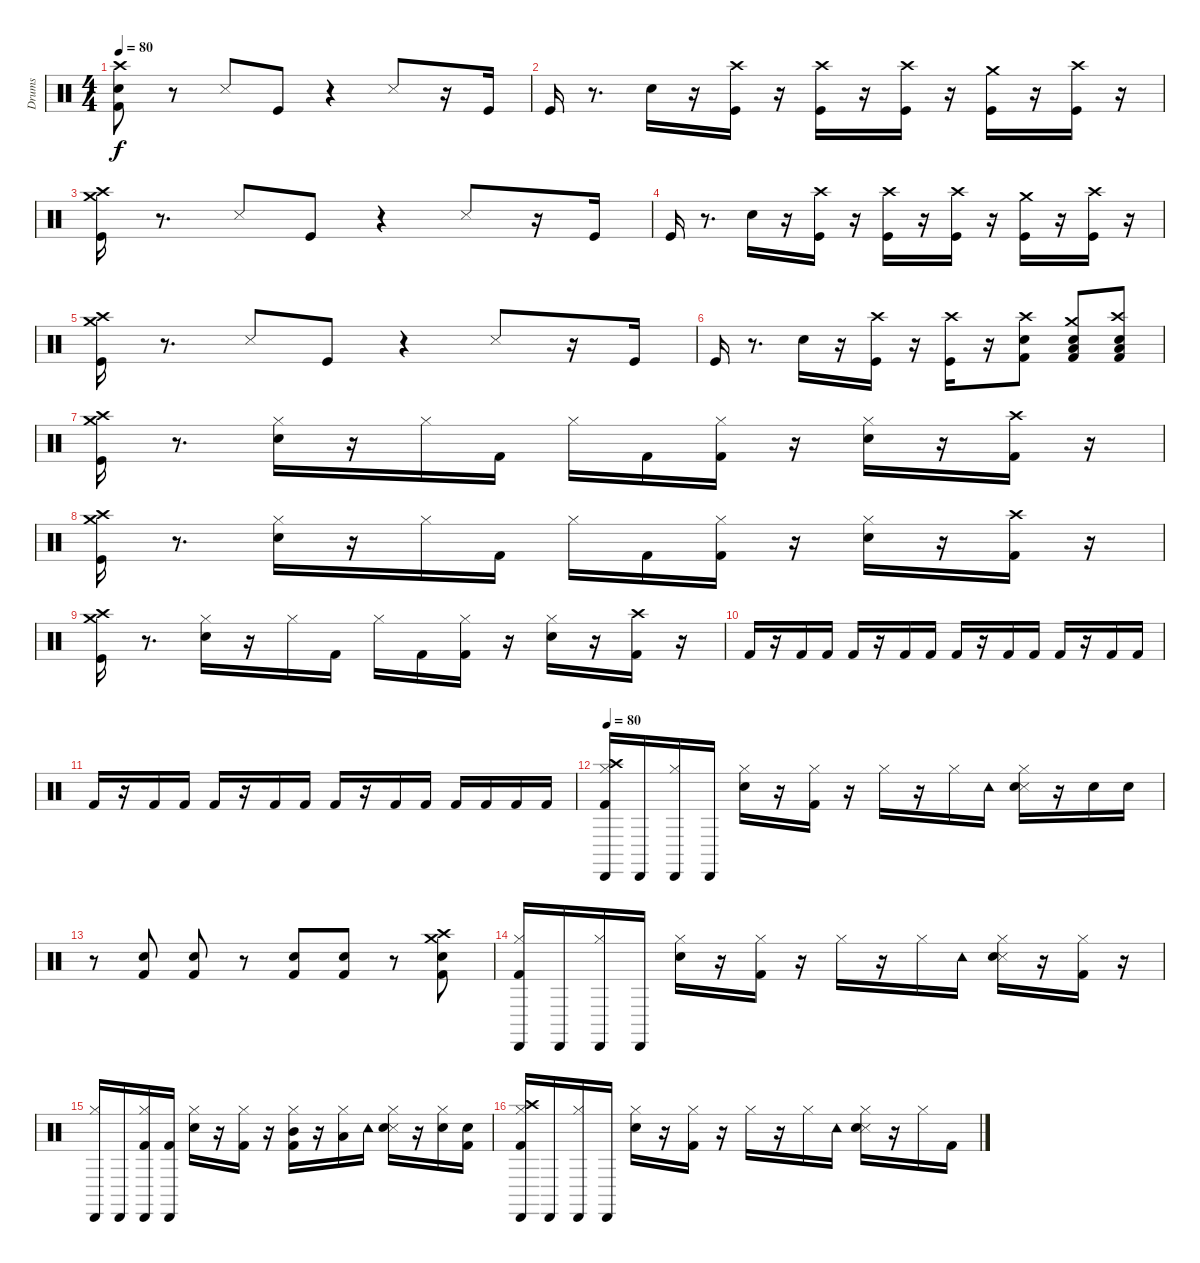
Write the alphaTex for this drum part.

\track ("Drums" "Drums") {instrument percussion}
\staff {score}
\articulation defaults
\ts (4 4)
\tempo 80
\clef neutral
\ks c
("Kick (hit) 2" "Snare (hit) 2" "Crash high (hit)").8{dy f} r.8 "Snare (side stick) 3".8 "Kick (hit)".8 r.4 "Snare (side stick) 3".8 r.16 "Kick (hit)".16 |
"Kick (hit)".16 r.8{d} "Electric Snare (hit)".16 r.16 ("Crash high (hit)" "Kick (hit)").16 r.16 ("Crash high (hit)" "Kick (hit)").16 r.16 ("Crash high (hit)" "Kick (hit)").16 r.16 ("Crash medium (hit)" "Kick (hit)").16 r.16 ("Crash high (hit)" "Kick (hit)").16 r.16 |
("Crash high (hit)" "Crash medium (hit)" "Kick (hit)").16 r.8{d} "Snare (side stick) 3".8 "Kick (hit)".8 r.4 "Snare (side stick) 3".8 r.16 "Kick (hit)".16 |
"Kick (hit)".16 r.8{d} "Electric Snare (hit)".16 r.16 ("Crash high (hit)" "Kick (hit)").16 r.16 ("Crash high (hit)" "Kick (hit)").16 r.16 ("Crash high (hit)" "Kick (hit)").16 r.16 ("Crash medium (hit)" "Kick (hit)").16 r.16 ("Crash high (hit)" "Kick (hit)").16 r.16 |
("Crash high (hit)" "Crash medium (hit)" "Kick (hit)").16 r.8{d} "Snare (side stick) 3".8 "Kick (hit)".8 r.4 "Snare (side stick) 3".8 r.16 "Kick (hit)".16 |
"Kick (hit)".16 r.8{d} "Electric Snare (hit)".16 r.16 ("Crash high (hit)" "Kick (hit)").16 r.16 ("Crash high (hit)" "Kick (hit)").16 r.16 ("Snare (hit) 2" "Crash high (hit)" "Kick (hit) 2").8 ("Snare (hit) 2" "Low Tom (hit)" "Crash medium (hit)" "Kick (hit) 2").8 ("Snare (hit) 2" "Low Tom (hit)" "Crash high (hit)" "Kick (hit) 2").8 |
("Crash high (hit)" "Crash medium (hit)" "Kick (hit)").16 r.8{d} ("Hi-Hat (closed)" "Snare (hit) 2").16 r.16 "Hi-Hat (closed)".16 "Kick (hit) 2".16 "Hi-Hat (closed)".16 "Kick (hit) 2".16 ("Hi-Hat (closed)" "Kick (hit) 2").16 r.16 ("Hi-Hat (closed)" "Snare (hit) 2").16 r.16 ("Crash high (hit)" "Kick (hit) 2").16 r.16 |
("Crash high (hit)" "Crash medium (hit)" "Kick (hit)").16 r.8{d} ("Hi-Hat (closed)" "Snare (hit) 2").16 r.16 "Hi-Hat (closed)".16 "Kick (hit) 2".16 "Hi-Hat (closed)".16 "Kick (hit) 2".16 ("Hi-Hat (closed)" "Kick (hit) 2").16 r.16 ("Hi-Hat (closed)" "Snare (hit) 2").16 r.16 ("Crash high (hit)" "Kick (hit) 2").16 r.16 |
("Crash high (hit)" "Crash medium (hit)" "Kick (hit)").16 r.8{d} ("Hi-Hat (closed)" "Snare (hit) 2").16 r.16 "Hi-Hat (closed)".16 "Kick (hit) 2".16 "Hi-Hat (closed)".16 "Kick (hit) 2".16 ("Hi-Hat (closed)" "Kick (hit) 2").16 r.16 ("Hi-Hat (closed)" "Snare (hit) 2").16 r.16 ("Crash high (hit)" "Kick (hit) 2").16 r.16 |
"Kick (hit) 2".16 r.16 "Kick (hit) 2".16 "Kick (hit) 2".16 "Kick (hit) 2".16 r.16 "Kick (hit) 2".16 "Kick (hit) 2".16 "Kick (hit) 2".16 r.16 "Kick (hit) 2".16 "Kick (hit) 2".16 "Kick (hit) 2".16 r.16 "Kick (hit) 2".16 "Kick (hit) 2".16 |
"Kick (hit) 2".16 r.16 "Kick (hit) 2".16 "Kick (hit) 2".16 "Kick (hit) 2".16 r.16 "Kick (hit) 2".16 "Kick (hit) 2".16 "Kick (hit) 2".16 r.16 "Kick (hit) 2".16 "Kick (hit) 2".16 "Kick (hit) 2".16 "Kick (hit) 2".16 "Kick (hit) 2".16 "Kick (hit) 2".16 |
\tempo 80
("Crash high (hit)" "Hi-Hat (closed)" "Kick (hit) 2" "Cabasa (hit)").16 "Cabasa (hit)".16 ("Cabasa (hit)" "Hi-Hat (closed)").16 "Cabasa (hit)".16 ("Hi-Hat (closed)" "Electric Snare (hit)").16 r.16 ("Kick (hit) 2" "Hi-Hat (closed)").16 r.16 "Hi-Hat (closed)".16 r.16 "Hi-Hat (closed)".16 "Tambourine (hit)".16 ("Metronome (hit)" "Snare (hit) 2" "Hi-Hat (closed)").16 r.16 "Electric Snare (hit)".16 "Electric Snare (hit)".16 |
r.8 ("Kick (hit) 2" "Electric Snare (hit)").8 ("Kick (hit) 2" "Electric Snare (hit)").8 r.8 ("Kick (hit) 2" "Electric Snare (hit)").8 ("Kick (hit) 2" "Electric Snare (hit)").8 r.8 ("Crash medium (hit)" "Crash high (hit)" "Kick (hit) 2" "Snare (hit) 2").8 |
("Hi-Hat (closed)" "Kick (hit) 2" "Cabasa (hit)").16 "Cabasa (hit)".16 ("Cabasa (hit)" "Hi-Hat (closed)").16 "Cabasa (hit)".16 ("Hi-Hat (closed)" "Electric Snare (hit)").16 r.16 ("Kick (hit) 2" "Hi-Hat (closed)").16 r.16 "Hi-Hat (closed)".16 r.16 "Hi-Hat (closed)".16 "Tambourine (hit)".16 ("Metronome (hit)" "Snare (hit) 2" "Hi-Hat (closed)").16 r.16 ("Kick (hit) 2" "Hi-Hat (closed)").16 r.16 |
("Hi-Hat (closed)" "Cabasa (hit)").16 "Cabasa (hit)".16 ("Kick (hit) 2" "Cabasa (hit)" "Hi-Hat (closed)").16 ("Kick (hit) 2" "Cabasa (hit)").16 ("Hi-Hat (closed)" "Electric Snare (hit)").16 r.16 ("Kick (hit) 2" "Hi-Hat (closed)").16 r.16 ("Mid Tom (hit)" "Kick (hit) 2" "Hi-Hat (closed)").16 r.16 ("Low Tom (hit)" "Hi-Hat (closed)").16 "Tambourine (hit)".16 ("Metronome (hit)" "Snare (hit) 2" "Hi-Hat (closed)").16 r.16 ("Snare (hit) 2" "Hi-Hat (closed)").16 ("Snare (hit) 2" "Kick (hit) 2").16 |
("Crash high (hit)" "Hi-Hat (closed)" "Kick (hit) 2" "Cabasa (hit)").16 "Cabasa (hit)".16 ("Cabasa (hit)" "Hi-Hat (closed)").16 "Cabasa (hit)".16 ("Hi-Hat (closed)" "Electric Snare (hit)").16 r.16 ("Kick (hit) 2" "Hi-Hat (closed)").16 r.16 "Hi-Hat (closed)".16 r.16 "Hi-Hat (closed)".16 "Tambourine (hit)".16 ("Metronome (hit)" "Snare (hit) 2" "Hi-Hat (closed)").16 r.16 "Hi-Hat (closed)".16 "Kick (hit) 2".16
